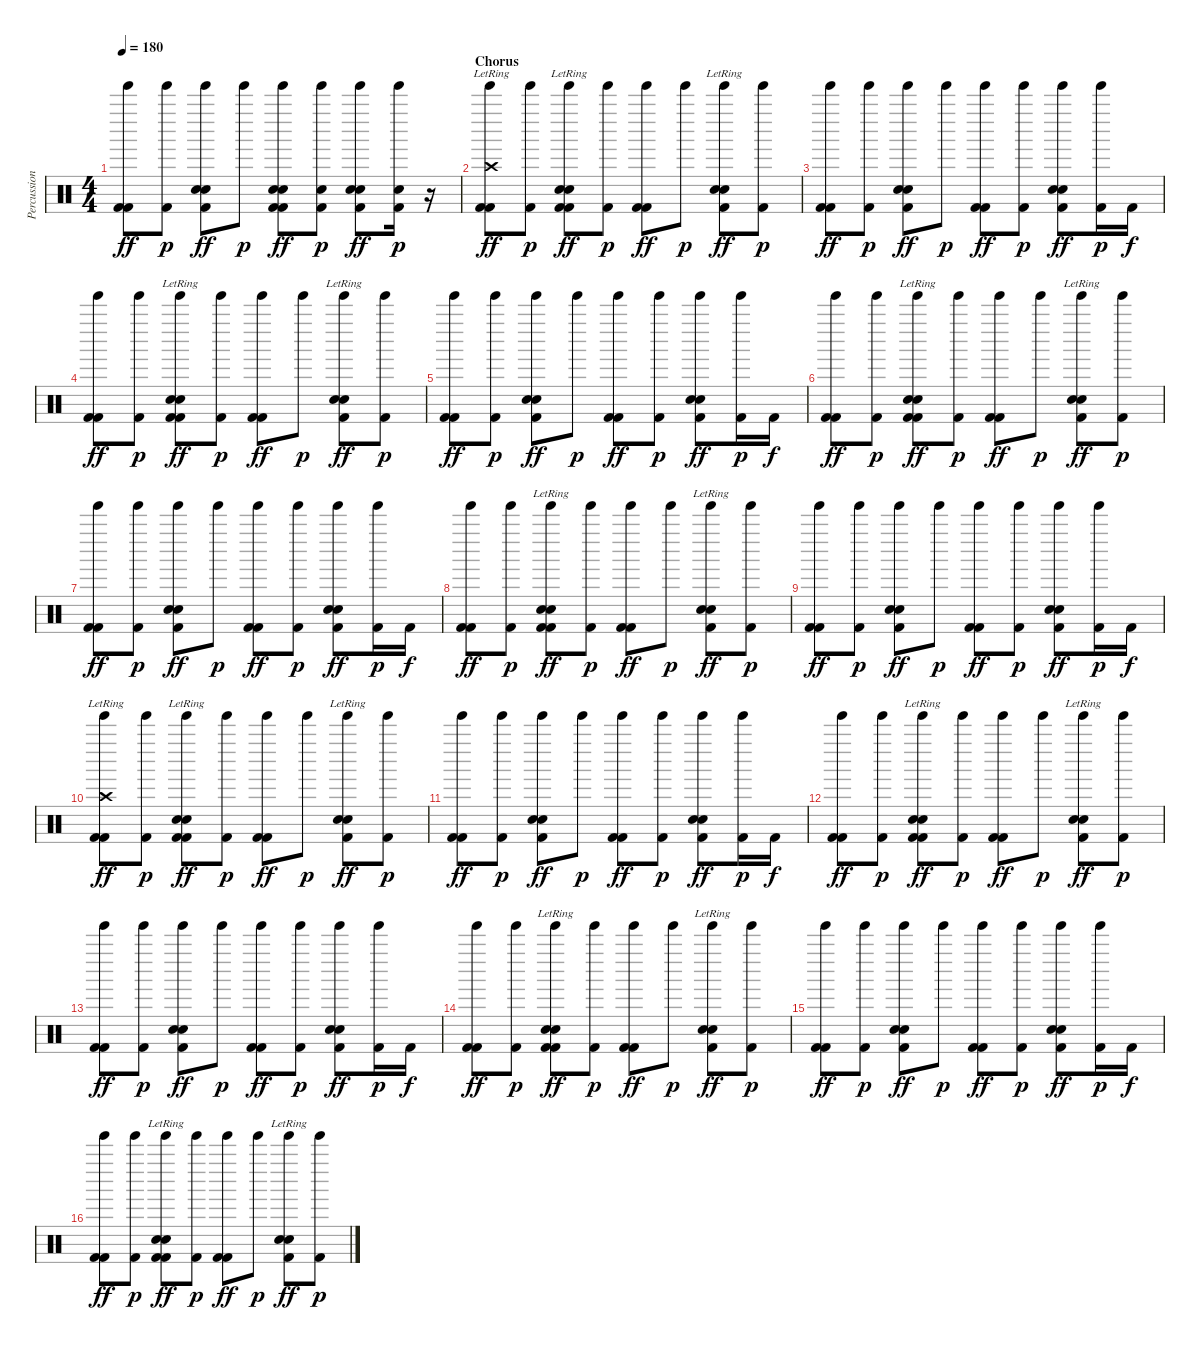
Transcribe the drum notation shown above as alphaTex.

\track ("Percussion" "Percussion") {instrument percussion}
\staff {score}
\articulation defaults
\ts (4 4)
\tempo 180
\clef neutral
\ks c
("Tinkle Bell (hit)" "Kick (hit) 2" "Kick (hit) 2").8{dy ff} ("Tinkle Bell (hit)" "Kick (hit) 2").8{dy p} ("Tinkle Bell (hit)" "Snare (hit) 2" "Electric Snare (hit)" "Kick (hit) 2").8{dy ff} "Tinkle Bell (hit)".8{dy p} ("Tinkle Bell (hit)" "Snare (hit) 2" "Electric Snare (hit)" "Kick (hit) 2" "Kick (hit) 2").8{dy ff} ("Tinkle Bell (hit)" "Electric Snare (hit)" "Kick (hit) 2").8{dy p} ("Tinkle Bell (hit)" "Snare (hit) 2" "Electric Snare (hit)" "Kick (hit) 2").8{dy ff} ("Tinkle Bell (hit)" "Electric Snare (hit)" "Kick (hit) 2").16{dy p} r.16 |
\section ("" "Chorus")
("Tinkle Bell (hit)" "Crash high (hit)"{lr} "Kick (hit) 2" "Kick (hit) 2").8{dy ff} ("Tinkle Bell (hit)" "Kick (hit) 2").8{dy p} ("Tinkle Bell (hit)" "Snare (hit) 2"{lr} "Electric Snare (hit)" "Kick (hit) 2" "Kick (hit) 2").8{dy ff} ("Tinkle Bell (hit)" "Kick (hit) 2").8{dy p} ("Tinkle Bell (hit)" "Kick (hit) 2" "Kick (hit) 2").8{dy ff} "Tinkle Bell (hit)".8{dy p} ("Tinkle Bell (hit)" "Snare (hit) 2"{lr} "Electric Snare (hit)" "Kick (hit) 2").8{dy ff} ("Tinkle Bell (hit)" "Kick (hit) 2").8{dy p} |
("Tinkle Bell (hit)" "Kick (hit) 2" "Kick (hit) 2").8{dy ff} ("Tinkle Bell (hit)" "Kick (hit) 2").8{dy p} ("Tinkle Bell (hit)" "Snare (hit) 2" "Electric Snare (hit)" "Kick (hit) 2").8{dy ff} "Tinkle Bell (hit)".8{dy p} ("Tinkle Bell (hit)" "Kick (hit) 2" "Kick (hit) 2").8{dy ff} ("Tinkle Bell (hit)" "Kick (hit) 2").8{dy p} ("Tinkle Bell (hit)" "Snare (hit) 2" "Electric Snare (hit)" "Kick (hit) 2").8{dy ff} ("Tinkle Bell (hit)" "Kick (hit) 2").16{dy p} "Kick (hit) 2".16{dy f} |
("Tinkle Bell (hit)" "Kick (hit) 2" "Kick (hit) 2").8{dy ff} ("Tinkle Bell (hit)" "Kick (hit) 2").8{dy p} ("Tinkle Bell (hit)" "Snare (hit) 2"{lr} "Electric Snare (hit)" "Kick (hit) 2" "Kick (hit) 2").8{dy ff} ("Tinkle Bell (hit)" "Kick (hit) 2").8{dy p} ("Tinkle Bell (hit)" "Kick (hit) 2" "Kick (hit) 2").8{dy ff} "Tinkle Bell (hit)".8{dy p} ("Tinkle Bell (hit)" "Snare (hit) 2"{lr} "Electric Snare (hit)" "Kick (hit) 2").8{dy ff} ("Tinkle Bell (hit)" "Kick (hit) 2").8{dy p} |
("Tinkle Bell (hit)" "Kick (hit) 2" "Kick (hit) 2").8{dy ff} ("Tinkle Bell (hit)" "Kick (hit) 2").8{dy p} ("Tinkle Bell (hit)" "Snare (hit) 2" "Electric Snare (hit)" "Kick (hit) 2").8{dy ff} "Tinkle Bell (hit)".8{dy p} ("Tinkle Bell (hit)" "Kick (hit) 2" "Kick (hit) 2").8{dy ff} ("Tinkle Bell (hit)" "Kick (hit) 2").8{dy p} ("Tinkle Bell (hit)" "Snare (hit) 2" "Electric Snare (hit)" "Kick (hit) 2").8{dy ff} ("Tinkle Bell (hit)" "Kick (hit) 2").16{dy p} "Kick (hit) 2".16{dy f} |
("Tinkle Bell (hit)" "Kick (hit) 2" "Kick (hit) 2").8{dy ff} ("Tinkle Bell (hit)" "Kick (hit) 2").8{dy p} ("Tinkle Bell (hit)" "Snare (hit) 2"{lr} "Electric Snare (hit)" "Kick (hit) 2" "Kick (hit) 2").8{dy ff} ("Tinkle Bell (hit)" "Kick (hit) 2").8{dy p} ("Tinkle Bell (hit)" "Kick (hit) 2" "Kick (hit) 2").8{dy ff} "Tinkle Bell (hit)".8{dy p} ("Tinkle Bell (hit)" "Snare (hit) 2"{lr} "Electric Snare (hit)" "Kick (hit) 2").8{dy ff} ("Tinkle Bell (hit)" "Kick (hit) 2").8{dy p} |
("Tinkle Bell (hit)" "Kick (hit) 2" "Kick (hit) 2").8{dy ff} ("Tinkle Bell (hit)" "Kick (hit) 2").8{dy p} ("Tinkle Bell (hit)" "Snare (hit) 2" "Electric Snare (hit)" "Kick (hit) 2").8{dy ff} "Tinkle Bell (hit)".8{dy p} ("Tinkle Bell (hit)" "Kick (hit) 2" "Kick (hit) 2").8{dy ff} ("Tinkle Bell (hit)" "Kick (hit) 2").8{dy p} ("Tinkle Bell (hit)" "Snare (hit) 2" "Electric Snare (hit)" "Kick (hit) 2").8{dy ff} ("Tinkle Bell (hit)" "Kick (hit) 2").16{dy p} "Kick (hit) 2".16{dy f} |
("Tinkle Bell (hit)" "Kick (hit) 2" "Kick (hit) 2").8{dy ff} ("Tinkle Bell (hit)" "Kick (hit) 2").8{dy p} ("Tinkle Bell (hit)" "Snare (hit) 2"{lr} "Electric Snare (hit)" "Kick (hit) 2" "Kick (hit) 2").8{dy ff} ("Tinkle Bell (hit)" "Kick (hit) 2").8{dy p} ("Tinkle Bell (hit)" "Kick (hit) 2" "Kick (hit) 2").8{dy ff} "Tinkle Bell (hit)".8{dy p} ("Tinkle Bell (hit)" "Snare (hit) 2"{lr} "Electric Snare (hit)" "Kick (hit) 2").8{dy ff} ("Tinkle Bell (hit)" "Kick (hit) 2").8{dy p} |
("Tinkle Bell (hit)" "Kick (hit) 2" "Kick (hit) 2").8{dy ff} ("Tinkle Bell (hit)" "Kick (hit) 2").8{dy p} ("Tinkle Bell (hit)" "Snare (hit) 2" "Electric Snare (hit)" "Kick (hit) 2").8{dy ff} "Tinkle Bell (hit)".8{dy p} ("Tinkle Bell (hit)" "Kick (hit) 2" "Kick (hit) 2").8{dy ff} ("Tinkle Bell (hit)" "Kick (hit) 2").8{dy p} ("Tinkle Bell (hit)" "Snare (hit) 2" "Electric Snare (hit)" "Kick (hit) 2").8{dy ff} ("Tinkle Bell (hit)" "Kick (hit) 2").16{dy p} "Kick (hit) 2".16{dy f} |
("Tinkle Bell (hit)" "Crash high (hit)"{lr} "Kick (hit) 2" "Kick (hit) 2").8{dy ff} ("Tinkle Bell (hit)" "Kick (hit) 2").8{dy p} ("Tinkle Bell (hit)" "Snare (hit) 2"{lr} "Electric Snare (hit)" "Kick (hit) 2" "Kick (hit) 2").8{dy ff} ("Tinkle Bell (hit)" "Kick (hit) 2").8{dy p} ("Tinkle Bell (hit)" "Kick (hit) 2" "Kick (hit) 2").8{dy ff} "Tinkle Bell (hit)".8{dy p} ("Tinkle Bell (hit)" "Snare (hit) 2"{lr} "Electric Snare (hit)" "Kick (hit) 2").8{dy ff} ("Tinkle Bell (hit)" "Kick (hit) 2").8{dy p} |
("Tinkle Bell (hit)" "Kick (hit) 2" "Kick (hit) 2").8{dy ff} ("Tinkle Bell (hit)" "Kick (hit) 2").8{dy p} ("Tinkle Bell (hit)" "Snare (hit) 2" "Electric Snare (hit)" "Kick (hit) 2").8{dy ff} "Tinkle Bell (hit)".8{dy p} ("Tinkle Bell (hit)" "Kick (hit) 2" "Kick (hit) 2").8{dy ff} ("Tinkle Bell (hit)" "Kick (hit) 2").8{dy p} ("Tinkle Bell (hit)" "Snare (hit) 2" "Electric Snare (hit)" "Kick (hit) 2").8{dy ff} ("Tinkle Bell (hit)" "Kick (hit) 2").16{dy p} "Kick (hit) 2".16{dy f} |
("Tinkle Bell (hit)" "Kick (hit) 2" "Kick (hit) 2").8{dy ff} ("Tinkle Bell (hit)" "Kick (hit) 2").8{dy p} ("Tinkle Bell (hit)" "Snare (hit) 2"{lr} "Electric Snare (hit)" "Kick (hit) 2" "Kick (hit) 2").8{dy ff} ("Tinkle Bell (hit)" "Kick (hit) 2").8{dy p} ("Tinkle Bell (hit)" "Kick (hit) 2" "Kick (hit) 2").8{dy ff} "Tinkle Bell (hit)".8{dy p} ("Tinkle Bell (hit)" "Snare (hit) 2"{lr} "Electric Snare (hit)" "Kick (hit) 2").8{dy ff} ("Tinkle Bell (hit)" "Kick (hit) 2").8{dy p} |
("Tinkle Bell (hit)" "Kick (hit) 2" "Kick (hit) 2").8{dy ff} ("Tinkle Bell (hit)" "Kick (hit) 2").8{dy p} ("Tinkle Bell (hit)" "Snare (hit) 2" "Electric Snare (hit)" "Kick (hit) 2").8{dy ff} "Tinkle Bell (hit)".8{dy p} ("Tinkle Bell (hit)" "Kick (hit) 2" "Kick (hit) 2").8{dy ff} ("Tinkle Bell (hit)" "Kick (hit) 2").8{dy p} ("Tinkle Bell (hit)" "Snare (hit) 2" "Electric Snare (hit)" "Kick (hit) 2").8{dy ff} ("Tinkle Bell (hit)" "Kick (hit) 2").16{dy p} "Kick (hit) 2".16{dy f} |
("Tinkle Bell (hit)" "Kick (hit) 2" "Kick (hit) 2").8{dy ff} ("Tinkle Bell (hit)" "Kick (hit) 2").8{dy p} ("Tinkle Bell (hit)" "Snare (hit) 2"{lr} "Electric Snare (hit)" "Kick (hit) 2" "Kick (hit) 2").8{dy ff} ("Tinkle Bell (hit)" "Kick (hit) 2").8{dy p} ("Tinkle Bell (hit)" "Kick (hit) 2" "Kick (hit) 2").8{dy ff} "Tinkle Bell (hit)".8{dy p} ("Tinkle Bell (hit)" "Snare (hit) 2"{lr} "Electric Snare (hit)" "Kick (hit) 2").8{dy ff} ("Tinkle Bell (hit)" "Kick (hit) 2").8{dy p} |
("Tinkle Bell (hit)" "Kick (hit) 2" "Kick (hit) 2").8{dy ff} ("Tinkle Bell (hit)" "Kick (hit) 2").8{dy p} ("Tinkle Bell (hit)" "Snare (hit) 2" "Electric Snare (hit)" "Kick (hit) 2").8{dy ff} "Tinkle Bell (hit)".8{dy p} ("Tinkle Bell (hit)" "Kick (hit) 2" "Kick (hit) 2").8{dy ff} ("Tinkle Bell (hit)" "Kick (hit) 2").8{dy p} ("Tinkle Bell (hit)" "Snare (hit) 2" "Electric Snare (hit)" "Kick (hit) 2").8{dy ff} ("Tinkle Bell (hit)" "Kick (hit) 2").16{dy p} "Kick (hit) 2".16{dy f} |
("Tinkle Bell (hit)" "Kick (hit) 2" "Kick (hit) 2").8{dy ff} ("Tinkle Bell (hit)" "Kick (hit) 2").8{dy p} ("Tinkle Bell (hit)" "Snare (hit) 2"{lr} "Electric Snare (hit)" "Kick (hit) 2" "Kick (hit) 2").8{dy ff} ("Tinkle Bell (hit)" "Kick (hit) 2").8{dy p} ("Tinkle Bell (hit)" "Kick (hit) 2" "Kick (hit) 2").8{dy ff} "Tinkle Bell (hit)".8{dy p} ("Tinkle Bell (hit)" "Snare (hit) 2"{lr} "Electric Snare (hit)" "Kick (hit) 2").8{dy ff} ("Tinkle Bell (hit)" "Kick (hit) 2").8{dy p}
